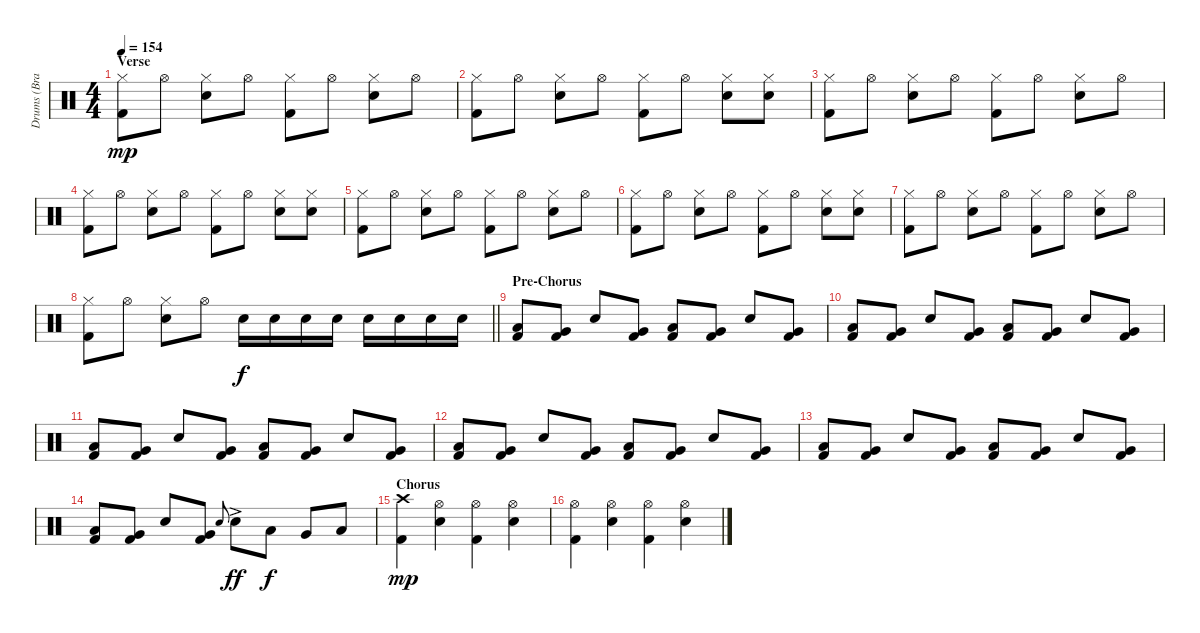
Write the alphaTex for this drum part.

\track ("Drums (Brandon Saller)" "Drums (Bra") {instrument percussion}
\staff {score}
\articulation defaults
\ts (4 4)
\section ("" "Verse")
\tempo 154
\clef neutral
\ks c
("Hi-Hat (closed)" "Kick (hit) 2").8{dy mp} "Hi-Hat (open)".8 ("Hi-Hat (closed)" "Electric Snare (hit)").8 "Hi-Hat (open)".8 ("Hi-Hat (closed)" "Kick (hit) 2").8 "Hi-Hat (open)".8 ("Hi-Hat (closed)" "Electric Snare (hit)").8 "Hi-Hat (open)".8 |
("Hi-Hat (closed)" "Kick (hit) 2").8 "Hi-Hat (open)".8 ("Hi-Hat (closed)" "Electric Snare (hit)").8 "Hi-Hat (open)".8 ("Hi-Hat (closed)" "Kick (hit) 2").8 "Hi-Hat (open)".8 ("Hi-Hat (closed)" "Electric Snare (hit)").8 ("Hi-Hat (closed)" "Electric Snare (hit)").8 |
("Hi-Hat (closed)" "Kick (hit) 2").8 "Hi-Hat (open)".8 ("Hi-Hat (closed)" "Electric Snare (hit)").8 "Hi-Hat (open)".8 ("Hi-Hat (closed)" "Kick (hit) 2").8 "Hi-Hat (open)".8 ("Hi-Hat (closed)" "Electric Snare (hit)").8 "Hi-Hat (open)".8 |
("Hi-Hat (closed)" "Kick (hit) 2").8 "Hi-Hat (open)".8 ("Hi-Hat (closed)" "Electric Snare (hit)").8 "Hi-Hat (open)".8 ("Hi-Hat (closed)" "Kick (hit) 2").8 "Hi-Hat (open)".8 ("Hi-Hat (closed)" "Electric Snare (hit)").8 ("Hi-Hat (closed)" "Electric Snare (hit)").8 |
("Hi-Hat (closed)" "Kick (hit) 2").8 "Hi-Hat (open)".8 ("Hi-Hat (closed)" "Electric Snare (hit)").8 "Hi-Hat (open)".8 ("Hi-Hat (closed)" "Kick (hit) 2").8 "Hi-Hat (open)".8 ("Hi-Hat (closed)" "Electric Snare (hit)").8 "Hi-Hat (open)".8 |
("Hi-Hat (closed)" "Kick (hit) 2").8 "Hi-Hat (open)".8 ("Hi-Hat (closed)" "Electric Snare (hit)").8 "Hi-Hat (open)".8 ("Hi-Hat (closed)" "Kick (hit) 2").8 "Hi-Hat (open)".8 ("Hi-Hat (closed)" "Electric Snare (hit)").8 ("Hi-Hat (closed)" "Electric Snare (hit)").8 |
("Hi-Hat (closed)" "Kick (hit) 2").8 "Hi-Hat (open)".8 ("Hi-Hat (closed)" "Electric Snare (hit)").8 "Hi-Hat (open)".8 ("Hi-Hat (closed)" "Kick (hit) 2").8 "Hi-Hat (open)".8 ("Hi-Hat (closed)" "Electric Snare (hit)").8 "Hi-Hat (open)".8 |
\barLineRight lightlight
("Hi-Hat (closed)" "Kick (hit) 2").8 "Hi-Hat (open)".8 ("Hi-Hat (closed)" "Electric Snare (hit)").8 "Hi-Hat (open)".8 "Electric Snare (hit)".16{dy f} "Electric Snare (hit)".16 "Electric Snare (hit)".16 "Electric Snare (hit)".16 "Electric Snare (hit)".16 "Electric Snare (hit)".16 "Electric Snare (hit)".16 "Electric Snare (hit)".16 |
\section ("" "Pre-Chorus")
("Low Tom (hit)" "Kick (hit) 2").8 ("Very Low Tom (hit)" "Kick (hit) 2").8 "Electric Snare (hit)".8 ("Very Low Tom (hit)" "Kick (hit) 2").8 ("Low Tom (hit)" "Kick (hit) 2").8 ("Very Low Tom (hit)" "Kick (hit) 2").8 "Electric Snare (hit)".8 ("Very Low Tom (hit)" "Kick (hit) 2").8 |
("Low Tom (hit)" "Kick (hit) 2").8 ("Very Low Tom (hit)" "Kick (hit) 2").8 "Electric Snare (hit)".8 ("Very Low Tom (hit)" "Kick (hit) 2").8 ("Low Tom (hit)" "Kick (hit) 2").8 ("Very Low Tom (hit)" "Kick (hit) 2").8 "Electric Snare (hit)".8 ("Very Low Tom (hit)" "Kick (hit) 2").8 |
("Low Tom (hit)" "Kick (hit) 2").8 ("Very Low Tom (hit)" "Kick (hit) 2").8 "Electric Snare (hit)".8 ("Very Low Tom (hit)" "Kick (hit) 2").8 ("Low Tom (hit)" "Kick (hit) 2").8 ("Very Low Tom (hit)" "Kick (hit) 2").8 "Electric Snare (hit)".8 ("Very Low Tom (hit)" "Kick (hit) 2").8 |
("Low Tom (hit)" "Kick (hit) 2").8 ("Very Low Tom (hit)" "Kick (hit) 2").8 "Electric Snare (hit)".8 ("Very Low Tom (hit)" "Kick (hit) 2").8 ("Low Tom (hit)" "Kick (hit) 2").8 ("Very Low Tom (hit)" "Kick (hit) 2").8 "Electric Snare (hit)".8 ("Very Low Tom (hit)" "Kick (hit) 2").8 |
("Low Tom (hit)" "Kick (hit) 2").8 ("Very Low Tom (hit)" "Kick (hit) 2").8 "Electric Snare (hit)".8 ("Very Low Tom (hit)" "Kick (hit) 2").8 ("Low Tom (hit)" "Kick (hit) 2").8 ("Very Low Tom (hit)" "Kick (hit) 2").8 "Electric Snare (hit)".8 ("Very Low Tom (hit)" "Kick (hit) 2").8 |
("Low Tom (hit)" "Kick (hit) 2").8 ("Very Low Tom (hit)" "Kick (hit) 2").8 "Electric Snare (hit)".8 ("Very Low Tom (hit)" "Kick (hit) 2").8 "Electric Snare (hit)".8{gr onbeat} "Electric Snare (hit)"{ac}.8{dy ff} "Low Tom (hit)".8{dy f} "Very Low Tom (hit)".8 "Low Floor Tom (hit)".8 |
\section ("" "Chorus")
("Crash high (hit)" "Kick (hit) 2").4{dy mp} ("Hi-Hat (open)" "Electric Snare (hit)").4 ("Hi-Hat (open)" "Kick (hit) 2").4 ("Hi-Hat (open)" "Electric Snare (hit)").4 |
("Hi-Hat (open)" "Kick (hit) 2").4 ("Hi-Hat (open)" "Electric Snare (hit)").4 ("Hi-Hat (open)" "Kick (hit) 2").4 ("Hi-Hat (open)" "Electric Snare (hit)").4
